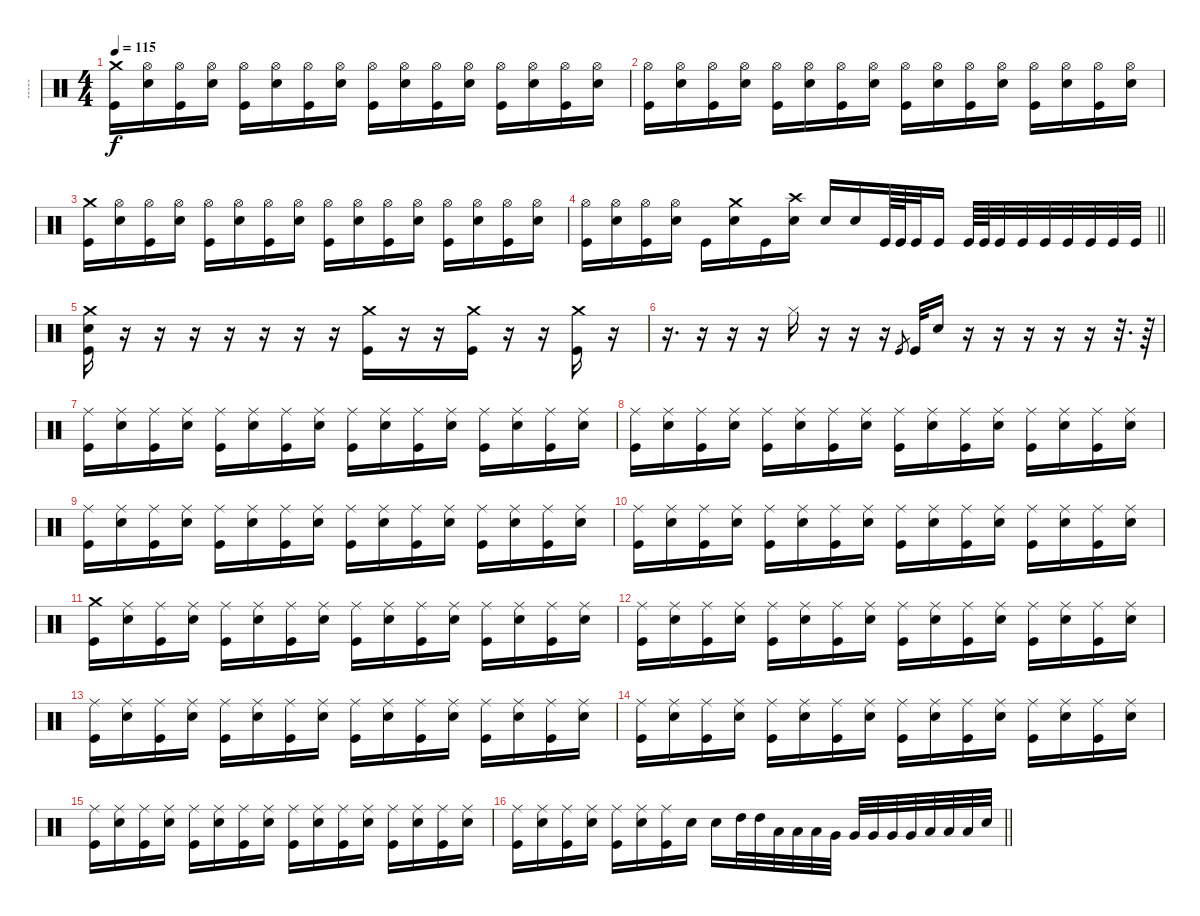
\track ("-----" "-----") {instrument percussion}
\staff {score}
\articulation defaults
\ts (4 4)
\tempo 115
\clef neutral
\ks c
("Crash medium (hit)" "Kick (hit)").16{dy f} ("Hi-Hat (open)" "Electric Snare (hit)").16 ("Hi-Hat (open)" "Kick (hit)").16 ("Hi-Hat (open)" "Electric Snare (hit)").16 ("Hi-Hat (open)" "Kick (hit)").16 ("Hi-Hat (open)" "Electric Snare (hit)").16 ("Hi-Hat (open)" "Kick (hit)").16 ("Hi-Hat (open)" "Electric Snare (hit)").16 ("Hi-Hat (open)" "Kick (hit)").16 ("Hi-Hat (open)" "Electric Snare (hit)").16 ("Hi-Hat (open)" "Kick (hit)").16 ("Hi-Hat (open)" "Electric Snare (hit)").16 ("Hi-Hat (open)" "Kick (hit)").16 ("Hi-Hat (open)" "Electric Snare (hit)").16 ("Hi-Hat (open)" "Kick (hit)").16 ("Hi-Hat (open)" "Electric Snare (hit)").16 |
("Hi-Hat (open)" "Kick (hit)").16 ("Hi-Hat (open)" "Electric Snare (hit)").16 ("Hi-Hat (open)" "Kick (hit)").16 ("Hi-Hat (open)" "Electric Snare (hit)").16 ("Hi-Hat (open)" "Kick (hit)").16 ("Hi-Hat (open)" "Electric Snare (hit)").16 ("Hi-Hat (open)" "Kick (hit)").16 ("Hi-Hat (open)" "Electric Snare (hit)").16 ("Hi-Hat (open)" "Kick (hit)").16 ("Hi-Hat (open)" "Electric Snare (hit)").16 ("Hi-Hat (open)" "Kick (hit)").16 ("Hi-Hat (open)" "Electric Snare (hit)").16 ("Hi-Hat (open)" "Kick (hit)").16 ("Hi-Hat (open)" "Electric Snare (hit)").16 ("Hi-Hat (open)" "Kick (hit)").16 ("Hi-Hat (open)" "Electric Snare (hit)").16 |
("Crash medium (hit)" "Kick (hit)").16 ("Hi-Hat (open)" "Electric Snare (hit)").16 ("Hi-Hat (open)" "Kick (hit)").16 ("Hi-Hat (open)" "Electric Snare (hit)").16 ("Hi-Hat (open)" "Kick (hit)").16 ("Hi-Hat (open)" "Electric Snare (hit)").16 ("Hi-Hat (open)" "Kick (hit)").16 ("Hi-Hat (open)" "Electric Snare (hit)").16 ("Hi-Hat (open)" "Kick (hit)").16 ("Hi-Hat (open)" "Electric Snare (hit)").16 ("Hi-Hat (open)" "Kick (hit)").16 ("Hi-Hat (open)" "Electric Snare (hit)").16 ("Hi-Hat (open)" "Kick (hit)").16 ("Hi-Hat (open)" "Electric Snare (hit)").16 ("Hi-Hat (open)" "Kick (hit)").16 ("Hi-Hat (open)" "Electric Snare (hit)").16 |
\barLineRight lightlight
("Hi-Hat (open)" "Kick (hit)").16 ("Hi-Hat (open)" "Electric Snare (hit)").16 ("Hi-Hat (open)" "Kick (hit)").16 ("Hi-Hat (open)" "Electric Snare (hit)").16 "Kick (hit)".16 ("Crash medium (hit)" "Electric Snare (hit)").16 "Kick (hit)".16 ("Crash high (hit)" "Electric Snare (hit)").16 "Electric Snare (hit)".16 "Electric Snare (hit)".16 "Kick (hit)".64 "Kick (hit)".64 "Kick (hit)".32 "Kick (hit)".16 "Kick (hit)".64 "Kick (hit)".64 "Kick (hit)".32 "Kick (hit)".32 "Kick (hit)".32 "Kick (hit)".32 "Kick (hit)".32 "Kick (hit)".32 "Kick (hit)".32 |
\section ("" "")
("Crash medium (hit)" "Electric Snare (hit)" "Kick (hit)").16 r.16 r.16 r.16 r.16 r.16 r.16 r.16 ("Crash medium (hit)" "Kick (hit)").16 r.16{volume 5} r.16 ("Crash medium (hit)" "Kick (hit)").16{volume 16} r.16{volume 5} r.16 ("Crash medium (hit)" "Kick (hit)").16{volume 16} r.16{volume 5} |
r.16{d} r.16 r.16 r.16 "Hi-Hat (closed)".16{volume 0} r.16 r.16 r.16{volume 16} "Kick (hit)".8{gr} "Kick (hit)".32 "Electric Snare (hit)".16 r.16 r.16 r.16 r.16 r.16 r.32{d} r.64 |
("Ride (middle)" "Kick (hit)").16 ("Ride (middle)" "Electric Snare (hit)").16 ("Ride (middle)" "Kick (hit)").16 ("Ride (middle)" "Electric Snare (hit)").16 ("Ride (middle)" "Kick (hit)").16 ("Ride (middle)" "Electric Snare (hit)").16 ("Ride (middle)" "Kick (hit)").16 ("Ride (middle)" "Electric Snare (hit)").16 ("Ride (middle)" "Kick (hit)").16 ("Ride (middle)" "Electric Snare (hit)").16 ("Ride (middle)" "Kick (hit)").16 ("Ride (middle)" "Electric Snare (hit)").16 ("Ride (middle)" "Kick (hit)").16 ("Ride (middle)" "Electric Snare (hit)").16 ("Ride (middle)" "Kick (hit)").16 ("Ride (middle)" "Electric Snare (hit)").16 |
("Ride (middle)" "Kick (hit)").16 ("Ride (middle)" "Electric Snare (hit)").16 ("Ride (middle)" "Kick (hit)").16 ("Ride (middle)" "Electric Snare (hit)").16 ("Ride (middle)" "Kick (hit)").16 ("Ride (middle)" "Electric Snare (hit)").16 ("Ride (middle)" "Kick (hit)").16 ("Ride (middle)" "Electric Snare (hit)").16 ("Ride (middle)" "Kick (hit)").16 ("Ride (middle)" "Electric Snare (hit)").16 ("Ride (middle)" "Kick (hit)").16 ("Ride (middle)" "Electric Snare (hit)").16 ("Ride (middle)" "Kick (hit)").16 ("Ride (middle)" "Electric Snare (hit)").16 ("Ride (middle)" "Kick (hit)").16 ("Ride (middle)" "Electric Snare (hit)").16 |
("Ride (middle)" "Kick (hit)").16 ("Ride (middle)" "Electric Snare (hit)").16 ("Ride (middle)" "Kick (hit)").16 ("Ride (middle)" "Electric Snare (hit)").16 ("Ride (middle)" "Kick (hit)").16 ("Ride (middle)" "Electric Snare (hit)").16 ("Ride (middle)" "Kick (hit)").16 ("Ride (middle)" "Electric Snare (hit)").16 ("Ride (middle)" "Kick (hit)").16 ("Ride (middle)" "Electric Snare (hit)").16 ("Ride (middle)" "Kick (hit)").16 ("Ride (middle)" "Electric Snare (hit)").16 ("Ride (middle)" "Kick (hit)").16 ("Ride (middle)" "Electric Snare (hit)").16 ("Ride (middle)" "Kick (hit)").16 ("Ride (middle)" "Electric Snare (hit)").16 |
("Ride (middle)" "Kick (hit)").16 ("Ride (middle)" "Electric Snare (hit)").16 ("Ride (middle)" "Kick (hit)").16 ("Ride (middle)" "Electric Snare (hit)").16 ("Ride (middle)" "Kick (hit)").16 ("Ride (middle)" "Electric Snare (hit)").16 ("Ride (middle)" "Kick (hit)").16 ("Ride (middle)" "Electric Snare (hit)").16 ("Ride (middle)" "Kick (hit)").16 ("Ride (middle)" "Electric Snare (hit)").16 ("Ride (middle)" "Kick (hit)").16 ("Ride (middle)" "Electric Snare (hit)").16 ("Ride (middle)" "Kick (hit)").16 ("Ride (middle)" "Electric Snare (hit)").16 ("Ride (middle)" "Kick (hit)").16 ("Ride (middle)" "Electric Snare (hit)").16 |
("Crash medium (hit)" "Kick (hit)").16 ("Ride (middle)" "Electric Snare (hit)").16 ("Ride (middle)" "Kick (hit)").16 ("Ride (middle)" "Electric Snare (hit)").16 ("Ride (middle)" "Kick (hit)").16 ("Ride (middle)" "Electric Snare (hit)").16 ("Ride (middle)" "Kick (hit)").16 ("Ride (middle)" "Electric Snare (hit)").16 ("Ride (middle)" "Kick (hit)").16 ("Ride (middle)" "Electric Snare (hit)").16 ("Ride (middle)" "Kick (hit)").16 ("Ride (middle)" "Electric Snare (hit)").16 ("Ride (middle)" "Kick (hit)").16 ("Ride (middle)" "Electric Snare (hit)").16 ("Ride (middle)" "Kick (hit)").16 ("Ride (middle)" "Electric Snare (hit)").16 |
("Ride (middle)" "Kick (hit)").16 ("Ride (middle)" "Electric Snare (hit)").16 ("Ride (middle)" "Kick (hit)").16 ("Ride (middle)" "Electric Snare (hit)").16 ("Ride (middle)" "Kick (hit)").16 ("Ride (middle)" "Electric Snare (hit)").16 ("Ride (middle)" "Kick (hit)").16 ("Ride (middle)" "Electric Snare (hit)").16 ("Ride (middle)" "Kick (hit)").16 ("Ride (middle)" "Electric Snare (hit)").16 ("Ride (middle)" "Kick (hit)").16 ("Ride (middle)" "Electric Snare (hit)").16 ("Ride (middle)" "Kick (hit)").16 ("Ride (middle)" "Electric Snare (hit)").16 ("Ride (middle)" "Kick (hit)").16 ("Ride (middle)" "Electric Snare (hit)").16 |
("Ride (middle)" "Kick (hit)").16 ("Ride (middle)" "Electric Snare (hit)").16 ("Ride (middle)" "Kick (hit)").16 ("Ride (middle)" "Electric Snare (hit)").16 ("Ride (middle)" "Kick (hit)").16 ("Ride (middle)" "Electric Snare (hit)").16 ("Ride (middle)" "Kick (hit)").16 ("Ride (middle)" "Electric Snare (hit)").16 ("Ride (middle)" "Kick (hit)").16 ("Ride (middle)" "Electric Snare (hit)").16 ("Ride (middle)" "Kick (hit)").16 ("Ride (middle)" "Electric Snare (hit)").16 ("Ride (middle)" "Kick (hit)").16 ("Ride (middle)" "Electric Snare (hit)").16 ("Ride (middle)" "Kick (hit)").16 ("Ride (middle)" "Electric Snare (hit)").16 |
("Ride (middle)" "Kick (hit)").16 ("Ride (middle)" "Electric Snare (hit)").16 ("Ride (middle)" "Kick (hit)").16 ("Ride (middle)" "Electric Snare (hit)").16 ("Ride (middle)" "Kick (hit)").16 ("Ride (middle)" "Electric Snare (hit)").16 ("Ride (middle)" "Kick (hit)").16 ("Ride (middle)" "Electric Snare (hit)").16 ("Ride (middle)" "Kick (hit)").16 ("Ride (middle)" "Electric Snare (hit)").16 ("Ride (middle)" "Kick (hit)").16 ("Ride (middle)" "Electric Snare (hit)").16 ("Ride (middle)" "Kick (hit)").16 ("Ride (middle)" "Electric Snare (hit)").16 ("Ride (middle)" "Kick (hit)").16 ("Ride (middle)" "Electric Snare (hit)").16 |
("Ride (middle)" "Kick (hit)").16 ("Ride (middle)" "Electric Snare (hit)").16 ("Ride (middle)" "Kick (hit)").16 ("Ride (middle)" "Electric Snare (hit)").16 ("Ride (middle)" "Kick (hit)").16 ("Ride (middle)" "Electric Snare (hit)").16 ("Ride (middle)" "Kick (hit)").16 ("Ride (middle)" "Electric Snare (hit)").16 ("Ride (middle)" "Kick (hit)").16 ("Ride (middle)" "Electric Snare (hit)").16 ("Ride (middle)" "Kick (hit)").16 ("Ride (middle)" "Electric Snare (hit)").16 ("Ride (middle)" "Kick (hit)").16 ("Ride (middle)" "Electric Snare (hit)").16 ("Ride (middle)" "Kick (hit)").16 ("Ride (middle)" "Electric Snare (hit)").16 |
\barLineRight lightlight
("Ride (middle)" "Kick (hit)").16 ("Ride (middle)" "Electric Snare (hit)").16 ("Ride (middle)" "Kick (hit)").16 ("Ride (middle)" "Electric Snare (hit)").16 ("Ride (middle)" "Kick (hit)").16 ("Ride (middle)" "Electric Snare (hit)").16 ("Ride (middle)" "Kick (hit)").16 "Electric Snare (hit)".16 "Electric Snare (hit)".16 "High Tom (hit)".32 "High Tom (hit)".32 "Low Tom (hit)".32 "Low Tom (hit)".32 "Low Tom (hit)".32 "Very Low Tom (hit)".32 "Very Low Tom (hit)".32 "Very Low Tom (hit)".32 "Very Low Tom (hit)".32 "Very Low Tom (hit)".32 "Low Floor Tom (hit)".32 "Low Floor Tom (hit)".32 "Low Floor Tom (hit)".32 "Electric Snare (hit)".32
